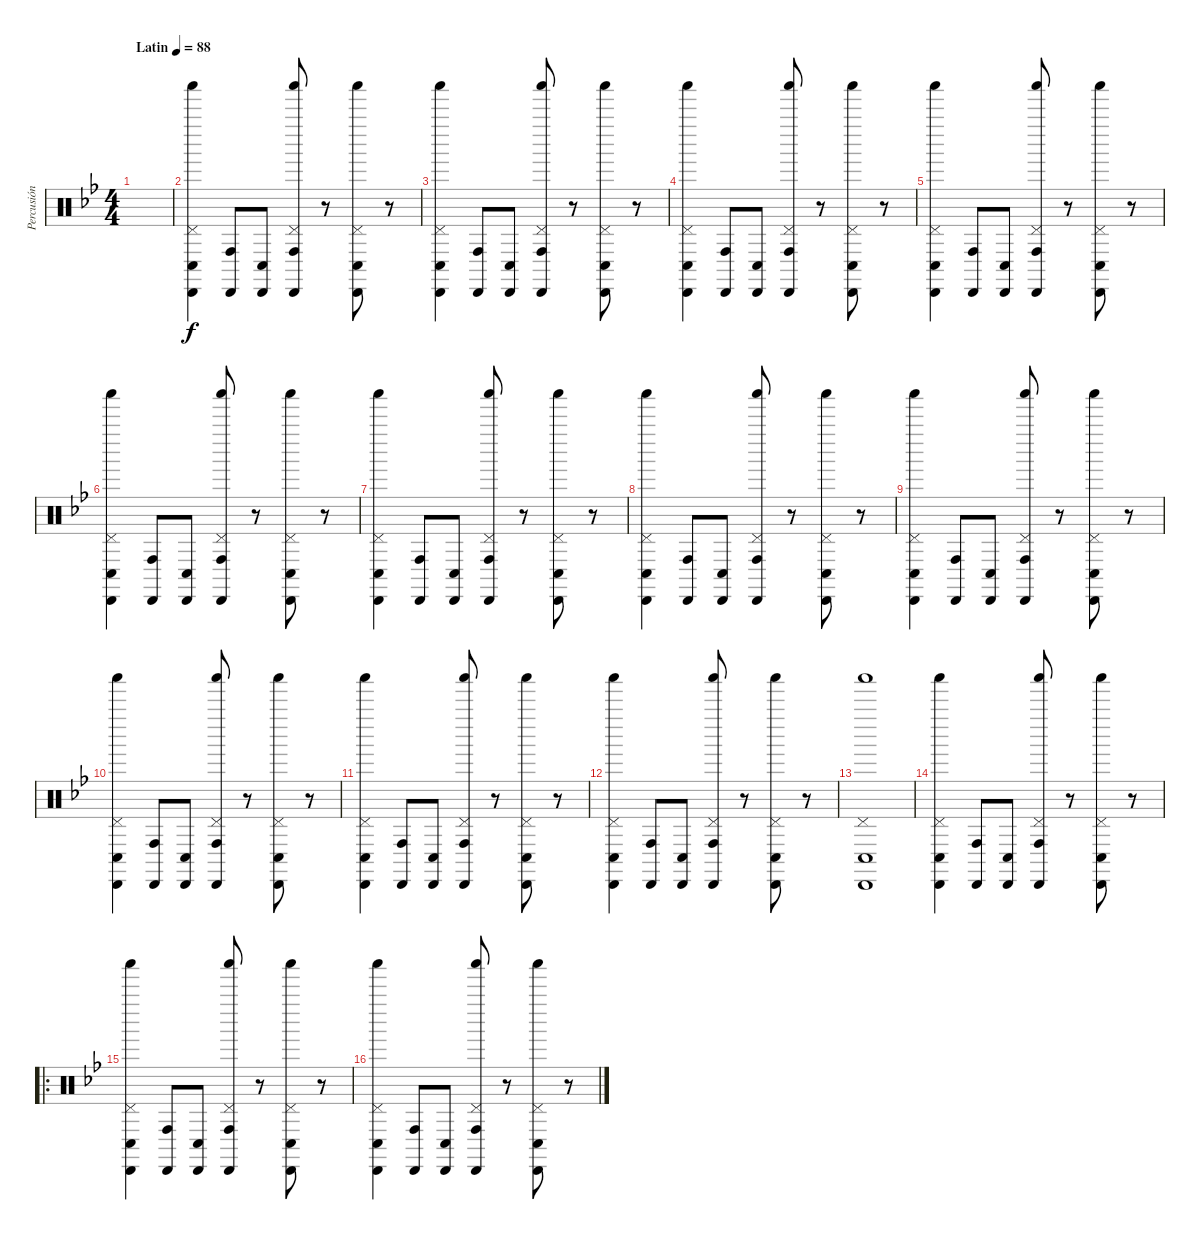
\track ("Percusión" "Percusión") {instrument percussion}
\staff {score}
\articulation defaults
\ts (4 4)
\tempo (88 "Latin")
\clef neutral
\ks bb
|
("Cabasa (hit)" "Conga low (hit)" "Pedal Hi-Hat (hit)" "Shaker (hit)").4 ("Cabasa (hit)" "Conga high (hit)").8 ("Cabasa (hit)" "Conga low (hit)").8 ("Cabasa (hit)" "Conga high (hit)" "Pedal Hi-Hat (hit)" "Shaker (hit)").8 r.8 ("Cabasa (hit)" "Conga low (hit)" "Pedal Hi-Hat (hit)" "Shaker (hit)").8 r.8 |
("Cabasa (hit)" "Conga low (hit)" "Pedal Hi-Hat (hit)" "Shaker (hit)").4 ("Cabasa (hit)" "Conga high (hit)").8 ("Cabasa (hit)" "Conga low (hit)").8 ("Cabasa (hit)" "Conga high (hit)" "Pedal Hi-Hat (hit)" "Shaker (hit)").8 r.8 ("Cabasa (hit)" "Conga low (hit)" "Pedal Hi-Hat (hit)" "Shaker (hit)").8 r.8 |
("Cabasa (hit)" "Conga low (hit)" "Pedal Hi-Hat (hit)" "Shaker (hit)").4 ("Cabasa (hit)" "Conga high (hit)").8 ("Cabasa (hit)" "Conga low (hit)").8 ("Cabasa (hit)" "Conga high (hit)" "Pedal Hi-Hat (hit)" "Shaker (hit)").8 r.8 ("Cabasa (hit)" "Conga low (hit)" "Pedal Hi-Hat (hit)" "Shaker (hit)").8 r.8 |
("Cabasa (hit)" "Conga low (hit)" "Pedal Hi-Hat (hit)" "Shaker (hit)").4 ("Cabasa (hit)" "Conga high (hit)").8 ("Cabasa (hit)" "Conga low (hit)").8 ("Cabasa (hit)" "Conga high (hit)" "Pedal Hi-Hat (hit)" "Shaker (hit)").8 r.8 ("Cabasa (hit)" "Conga low (hit)" "Pedal Hi-Hat (hit)" "Shaker (hit)").8 r.8 |
("Cabasa (hit)" "Conga low (hit)" "Pedal Hi-Hat (hit)" "Shaker (hit)").4 ("Cabasa (hit)" "Conga high (hit)").8 ("Cabasa (hit)" "Conga low (hit)").8 ("Cabasa (hit)" "Conga high (hit)" "Pedal Hi-Hat (hit)" "Shaker (hit)").8 r.8 ("Cabasa (hit)" "Conga low (hit)" "Pedal Hi-Hat (hit)" "Shaker (hit)").8 r.8 |
("Cabasa (hit)" "Conga low (hit)" "Pedal Hi-Hat (hit)" "Shaker (hit)").4 ("Cabasa (hit)" "Conga high (hit)").8 ("Cabasa (hit)" "Conga low (hit)").8 ("Cabasa (hit)" "Conga high (hit)" "Pedal Hi-Hat (hit)" "Shaker (hit)").8 r.8 ("Cabasa (hit)" "Conga low (hit)" "Pedal Hi-Hat (hit)" "Shaker (hit)").8 r.8 |
("Cabasa (hit)" "Conga low (hit)" "Pedal Hi-Hat (hit)" "Shaker (hit)").4 ("Cabasa (hit)" "Conga high (hit)").8 ("Cabasa (hit)" "Conga low (hit)").8 ("Cabasa (hit)" "Conga high (hit)" "Pedal Hi-Hat (hit)" "Shaker (hit)").8 r.8 ("Cabasa (hit)" "Conga low (hit)" "Pedal Hi-Hat (hit)" "Shaker (hit)").8 r.8 |
("Cabasa (hit)" "Conga low (hit)" "Pedal Hi-Hat (hit)" "Shaker (hit)").4 ("Cabasa (hit)" "Conga high (hit)").8 ("Cabasa (hit)" "Conga low (hit)").8 ("Cabasa (hit)" "Conga high (hit)" "Pedal Hi-Hat (hit)" "Shaker (hit)").8 r.8 ("Cabasa (hit)" "Conga low (hit)" "Pedal Hi-Hat (hit)" "Shaker (hit)").8 r.8 |
("Cabasa (hit)" "Conga low (hit)" "Pedal Hi-Hat (hit)" "Shaker (hit)").4 ("Cabasa (hit)" "Conga high (hit)").8 ("Cabasa (hit)" "Conga low (hit)").8 ("Cabasa (hit)" "Conga high (hit)" "Pedal Hi-Hat (hit)" "Shaker (hit)").8 r.8 ("Cabasa (hit)" "Conga low (hit)" "Pedal Hi-Hat (hit)" "Shaker (hit)").8 r.8 |
("Cabasa (hit)" "Conga low (hit)" "Pedal Hi-Hat (hit)" "Shaker (hit)").4 ("Cabasa (hit)" "Conga high (hit)").8 ("Cabasa (hit)" "Conga low (hit)").8 ("Cabasa (hit)" "Conga high (hit)" "Pedal Hi-Hat (hit)" "Shaker (hit)").8 r.8 ("Cabasa (hit)" "Conga low (hit)" "Pedal Hi-Hat (hit)" "Shaker (hit)").8 r.8 |
("Cabasa (hit)" "Conga low (hit)" "Pedal Hi-Hat (hit)" "Shaker (hit)").4 ("Cabasa (hit)" "Conga high (hit)").8 ("Cabasa (hit)" "Conga low (hit)").8 ("Cabasa (hit)" "Conga high (hit)" "Pedal Hi-Hat (hit)" "Shaker (hit)").8 r.8 ("Cabasa (hit)" "Conga low (hit)" "Pedal Hi-Hat (hit)" "Shaker (hit)").8 r.8 |
("Cabasa (hit)" "Conga low (hit)" "Pedal Hi-Hat (hit)" "Shaker (hit)").1 |
("Cabasa (hit)" "Conga low (hit)" "Pedal Hi-Hat (hit)" "Shaker (hit)").4 ("Cabasa (hit)" "Conga high (hit)").8 ("Cabasa (hit)" "Conga low (hit)").8 ("Cabasa (hit)" "Conga high (hit)" "Pedal Hi-Hat (hit)" "Shaker (hit)").8 r.8 ("Cabasa (hit)" "Conga low (hit)" "Pedal Hi-Hat (hit)" "Shaker (hit)").8 r.8 |
\ro
("Cabasa (hit)" "Conga low (hit)" "Pedal Hi-Hat (hit)" "Shaker (hit)").4 ("Cabasa (hit)" "Conga high (hit)").8 ("Cabasa (hit)" "Conga low (hit)").8 ("Cabasa (hit)" "Conga high (hit)" "Pedal Hi-Hat (hit)" "Shaker (hit)").8 r.8 ("Cabasa (hit)" "Conga low (hit)" "Pedal Hi-Hat (hit)" "Shaker (hit)").8 r.8 |
("Cabasa (hit)" "Conga low (hit)" "Pedal Hi-Hat (hit)" "Shaker (hit)").4 ("Cabasa (hit)" "Conga high (hit)").8 ("Cabasa (hit)" "Conga low (hit)").8 ("Cabasa (hit)" "Conga high (hit)" "Pedal Hi-Hat (hit)" "Shaker (hit)").8 r.8 ("Cabasa (hit)" "Conga low (hit)" "Pedal Hi-Hat (hit)" "Shaker (hit)").8 r.8
